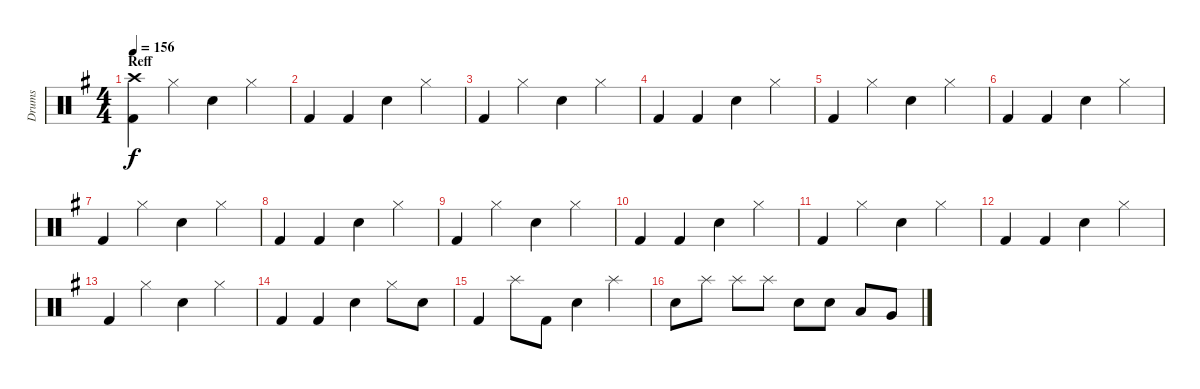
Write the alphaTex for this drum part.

\track ("Drums" "Drums") {instrument percussion}
\staff {score}
\articulation defaults
\ts (4 4)
\section ("" "Reff")
\tempo 156
\clef neutral
\ks g
("Crash high (hit)" "Kick (hit) 2").4{dy f} "Hi-Hat (closed)".4 "Snare (hit) 2".4 "Hi-Hat (closed)".4 |
"Kick (hit) 2".4 "Kick (hit) 2".4 "Snare (hit) 2".4 "Hi-Hat (closed)".4 |
"Kick (hit) 2".4 "Hi-Hat (closed)".4 "Snare (hit) 2".4 "Hi-Hat (closed)".4 |
"Kick (hit) 2".4 "Kick (hit) 2".4 "Snare (hit) 2".4 "Hi-Hat (closed)".4 |
"Kick (hit) 2".4 "Hi-Hat (closed)".4 "Snare (hit) 2".4 "Hi-Hat (closed)".4 |
"Kick (hit) 2".4 "Kick (hit) 2".4 "Snare (hit) 2".4 "Hi-Hat (closed)".4 |
"Kick (hit) 2".4 "Hi-Hat (closed)".4 "Snare (hit) 2".4 "Hi-Hat (closed)".4 |
"Kick (hit) 2".4 "Kick (hit) 2".4 "Snare (hit) 2".4 "Hi-Hat (closed)".4 |
"Kick (hit) 2".4 "Hi-Hat (closed)".4 "Snare (hit) 2".4 "Hi-Hat (closed)".4 |
"Kick (hit) 2".4 "Kick (hit) 2".4 "Snare (hit) 2".4 "Hi-Hat (closed)".4 |
"Kick (hit) 2".4 "Hi-Hat (closed)".4 "Snare (hit) 2".4 "Hi-Hat (closed)".4 |
"Kick (hit) 2".4 "Kick (hit) 2".4 "Snare (hit) 2".4 "Hi-Hat (closed)".4 |
"Kick (hit) 2".4 "Hi-Hat (closed)".4 "Snare (hit) 2".4 "Hi-Hat (closed)".4 |
"Kick (hit) 2".4 "Kick (hit) 2".4 "Snare (hit) 2".4 "Hi-Hat (closed)".8 "Snare (hit) 2".8 |
"Kick (hit) 2".4 "Splash (hit)".8 "Kick (hit) 2".8 "Snare (hit) 2".4 "Splash (hit)".4 |
"Snare (hit) 2".8 "Splash (hit)".8 "Splash (hit)".8 "Splash (hit)".8 "Snare (hit) 2".8 "Snare (hit) 2".8 "Low Tom (hit)".8 "Very Low Tom (hit)".8
